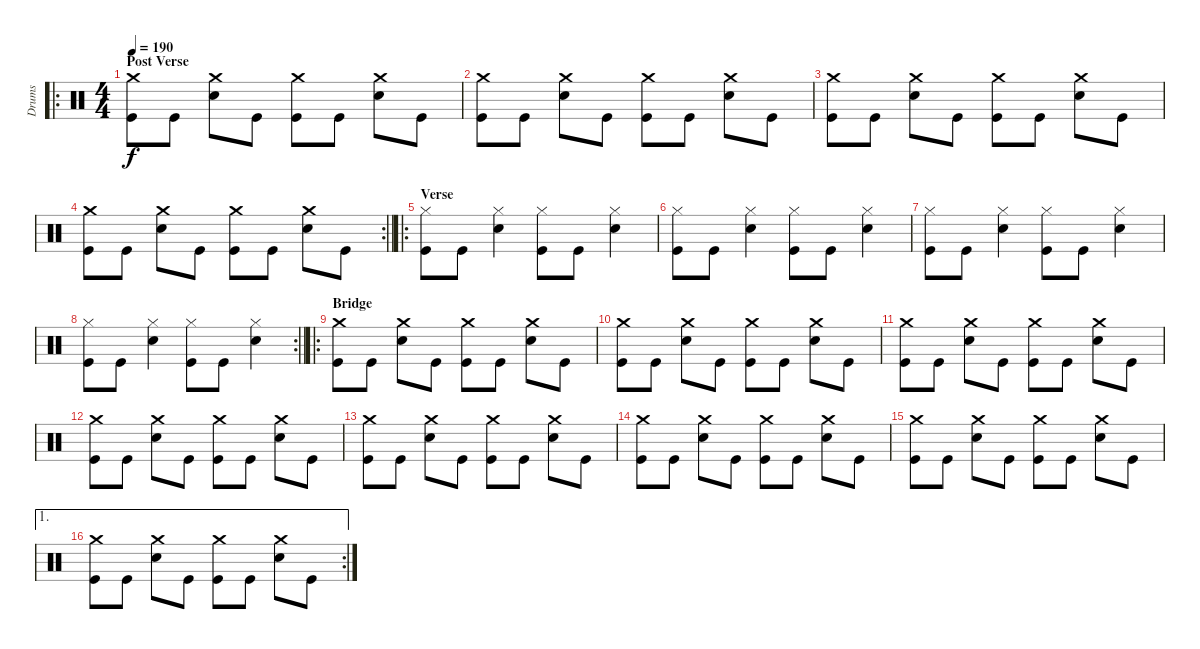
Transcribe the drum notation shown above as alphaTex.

\track ("Drums" "Drums") {instrument percussion}
\staff {score}
\articulation defaults
\ro
\ts (4 4)
\section ("" "Post Verse")
\tempo 190
\clef neutral
\ks c
("Crash medium (hit)" "Kick (hit)").8{dy f} "Kick (hit)".8 ("Crash medium (hit)" "Snare (hit) 2").8 "Kick (hit)".8 ("Crash medium (hit)" "Kick (hit)").8 "Kick (hit)".8 ("Crash medium (hit)" "Snare (hit) 2").8 "Kick (hit)".8 |
("Crash medium (hit)" "Kick (hit)").8 "Kick (hit)".8 ("Crash medium (hit)" "Snare (hit) 2").8 "Kick (hit)".8 ("Crash medium (hit)" "Kick (hit)").8 "Kick (hit)".8 ("Crash medium (hit)" "Snare (hit) 2").8 "Kick (hit)".8 |
("Crash medium (hit)" "Kick (hit)").8 "Kick (hit)".8 ("Crash medium (hit)" "Snare (hit) 2").8 "Kick (hit)".8 ("Crash medium (hit)" "Kick (hit)").8 "Kick (hit)".8 ("Crash medium (hit)" "Snare (hit) 2").8 "Kick (hit)".8 |
\rc 2
\barLineRight lightlight
("Crash medium (hit)" "Kick (hit)").8 "Kick (hit)".8 ("Crash medium (hit)" "Snare (hit) 2").8 "Kick (hit)".8 ("Crash medium (hit)" "Kick (hit)").8 "Kick (hit)".8 ("Crash medium (hit)" "Snare (hit) 2").8 "Kick (hit)".8 |
\ro
\section ("" "Verse")
("Hi-Hat (closed)" "Kick (hit)").8 "Kick (hit)".8 ("Hi-Hat (closed)" "Snare (hit) 2").4 ("Hi-Hat (closed)" "Kick (hit)").8 "Kick (hit)".8 ("Hi-Hat (closed)" "Snare (hit) 2").4 |
("Hi-Hat (closed)" "Kick (hit)").8 "Kick (hit)".8 ("Hi-Hat (closed)" "Snare (hit) 2").4 ("Hi-Hat (closed)" "Kick (hit)").8 "Kick (hit)".8 ("Hi-Hat (closed)" "Snare (hit) 2").4 |
("Hi-Hat (closed)" "Kick (hit)").8 "Kick (hit)".8 ("Hi-Hat (closed)" "Snare (hit) 2").4 ("Hi-Hat (closed)" "Kick (hit)").8 "Kick (hit)".8 ("Hi-Hat (closed)" "Snare (hit) 2").4 |
\rc 2
\barLineRight lightlight
("Hi-Hat (closed)" "Kick (hit)").8 "Kick (hit)".8 ("Hi-Hat (closed)" "Snare (hit) 2").4 ("Hi-Hat (closed)" "Kick (hit)").8 "Kick (hit)".8 ("Hi-Hat (closed)" "Snare (hit) 2").4 |
\ro
\section ("" "Bridge")
("Crash medium (hit)" "Kick (hit)").8 "Kick (hit)".8 ("Crash medium (hit)" "Snare (hit) 2").8 "Kick (hit)".8 ("Crash medium (hit)" "Kick (hit)").8 "Kick (hit)".8 ("Crash medium (hit)" "Snare (hit) 2").8 "Kick (hit)".8 |
("Crash medium (hit)" "Kick (hit)").8 "Kick (hit)".8 ("Crash medium (hit)" "Snare (hit) 2").8 "Kick (hit)".8 ("Crash medium (hit)" "Kick (hit)").8 "Kick (hit)".8 ("Crash medium (hit)" "Snare (hit) 2").8 "Kick (hit)".8 |
("Crash medium (hit)" "Kick (hit)").8 "Kick (hit)".8 ("Crash medium (hit)" "Snare (hit) 2").8 "Kick (hit)".8 ("Crash medium (hit)" "Kick (hit)").8 "Kick (hit)".8 ("Crash medium (hit)" "Snare (hit) 2").8 "Kick (hit)".8 |
("Crash medium (hit)" "Kick (hit)").8 "Kick (hit)".8 ("Crash medium (hit)" "Snare (hit) 2").8 "Kick (hit)".8 ("Crash medium (hit)" "Kick (hit)").8 "Kick (hit)".8 ("Crash medium (hit)" "Snare (hit) 2").8 "Kick (hit)".8 |
("Crash medium (hit)" "Kick (hit)").8 "Kick (hit)".8 ("Crash medium (hit)" "Snare (hit) 2").8 "Kick (hit)".8 ("Crash medium (hit)" "Kick (hit)").8 "Kick (hit)".8 ("Crash medium (hit)" "Snare (hit) 2").8 "Kick (hit)".8 |
("Crash medium (hit)" "Kick (hit)").8 "Kick (hit)".8 ("Crash medium (hit)" "Snare (hit) 2").8 "Kick (hit)".8 ("Crash medium (hit)" "Kick (hit)").8 "Kick (hit)".8 ("Crash medium (hit)" "Snare (hit) 2").8 "Kick (hit)".8 |
("Crash medium (hit)" "Kick (hit)").8 "Kick (hit)".8 ("Crash medium (hit)" "Snare (hit) 2").8 "Kick (hit)".8 ("Crash medium (hit)" "Kick (hit)").8 "Kick (hit)".8 ("Crash medium (hit)" "Snare (hit) 2").8 "Kick (hit)".8 |
\ae 1
\rc 2
("Crash medium (hit)" "Kick (hit)").8 "Kick (hit)".8 ("Crash medium (hit)" "Snare (hit) 2").8 "Kick (hit)".8 ("Crash medium (hit)" "Kick (hit)").8 "Kick (hit)".8 ("Crash medium (hit)" "Snare (hit) 2").8 "Kick (hit)".8
